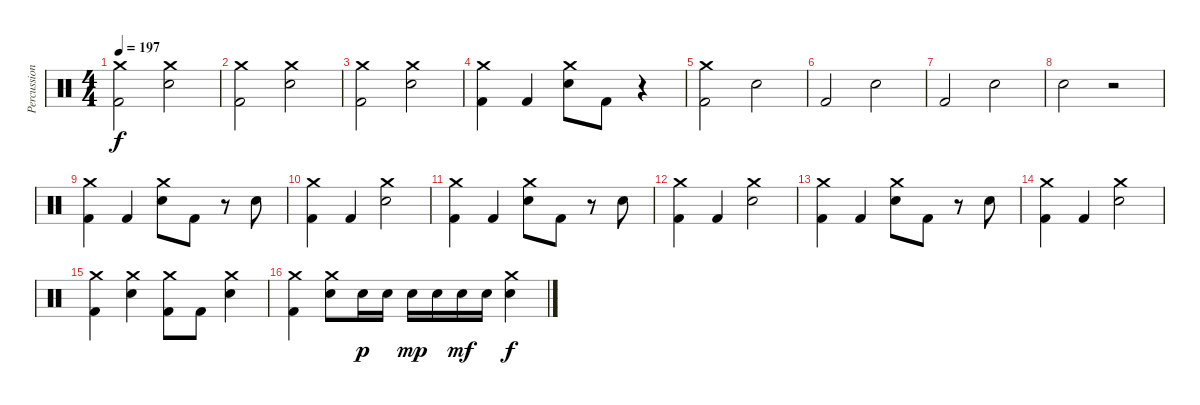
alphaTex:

\track ("Percussion" "Percussion") {instrument percussion}
\staff {score}
\articulation defaults
\ts (4 4)
\tempo 197
\clef neutral
\ks c
("Crash medium (hit)" "Kick (hit) 2").2{dy f} ("Crash medium (hit)" "Snare (hit) 2").2 |
("Crash medium (hit)" "Kick (hit) 2").2 ("Crash medium (hit)" "Snare (hit) 2").2 |
("Crash medium (hit)" "Kick (hit) 2").2 ("Crash medium (hit)" "Snare (hit) 2").2 |
("Crash medium (hit)" "Kick (hit) 2").4 "Kick (hit) 2".4 ("Crash medium (hit)" "Snare (hit) 2").8 "Kick (hit) 2".8 r.4 |
("Crash medium (hit)" "Kick (hit) 2").2 "Snare (hit) 2".2 |
"Kick (hit) 2".2 "Snare (hit) 2".2 |
"Kick (hit) 2".2 "Snare (hit) 2".2 |
"Snare (hit) 2".2 r.2 |
("Crash medium (hit)" "Kick (hit) 2").4 "Kick (hit) 2".4 ("Crash medium (hit)" "Snare (hit) 2").8 "Kick (hit) 2".8 r.8 "Snare (hit) 2".8 |
("Crash medium (hit)" "Kick (hit) 2").4 "Kick (hit) 2".4 ("Crash medium (hit)" "Snare (hit) 2").2 |
("Crash medium (hit)" "Kick (hit) 2").4 "Kick (hit) 2".4 ("Crash medium (hit)" "Snare (hit) 2").8 "Kick (hit) 2".8 r.8 "Snare (hit) 2".8 |
("Crash medium (hit)" "Kick (hit) 2").4 "Kick (hit) 2".4 ("Crash medium (hit)" "Snare (hit) 2").2 |
("Crash medium (hit)" "Kick (hit) 2").4 "Kick (hit) 2".4 ("Crash medium (hit)" "Snare (hit) 2").8 "Kick (hit) 2".8 r.8 "Snare (hit) 2".8 |
("Crash medium (hit)" "Kick (hit) 2").4 "Kick (hit) 2".4 ("Crash medium (hit)" "Snare (hit) 2").2 |
("Crash medium (hit)" "Kick (hit) 2").4 ("Crash medium (hit)" "Snare (hit) 2").4 ("Crash medium (hit)" "Kick (hit) 2").8 "Kick (hit) 2".8 ("Crash medium (hit)" "Snare (hit) 2").4 |
("Crash medium (hit)" "Kick (hit) 2").4 ("Crash medium (hit)" "Snare (hit) 2").8 "Snare (hit) 2".16{dy p} "Snare (hit) 2".16 "Snare (hit) 2".16{dy mp} "Snare (hit) 2".16 "Snare (hit) 2".16{dy mf} "Snare (hit) 2".16 ("Crash medium (hit)" "Snare (hit) 2").4{dy f}
